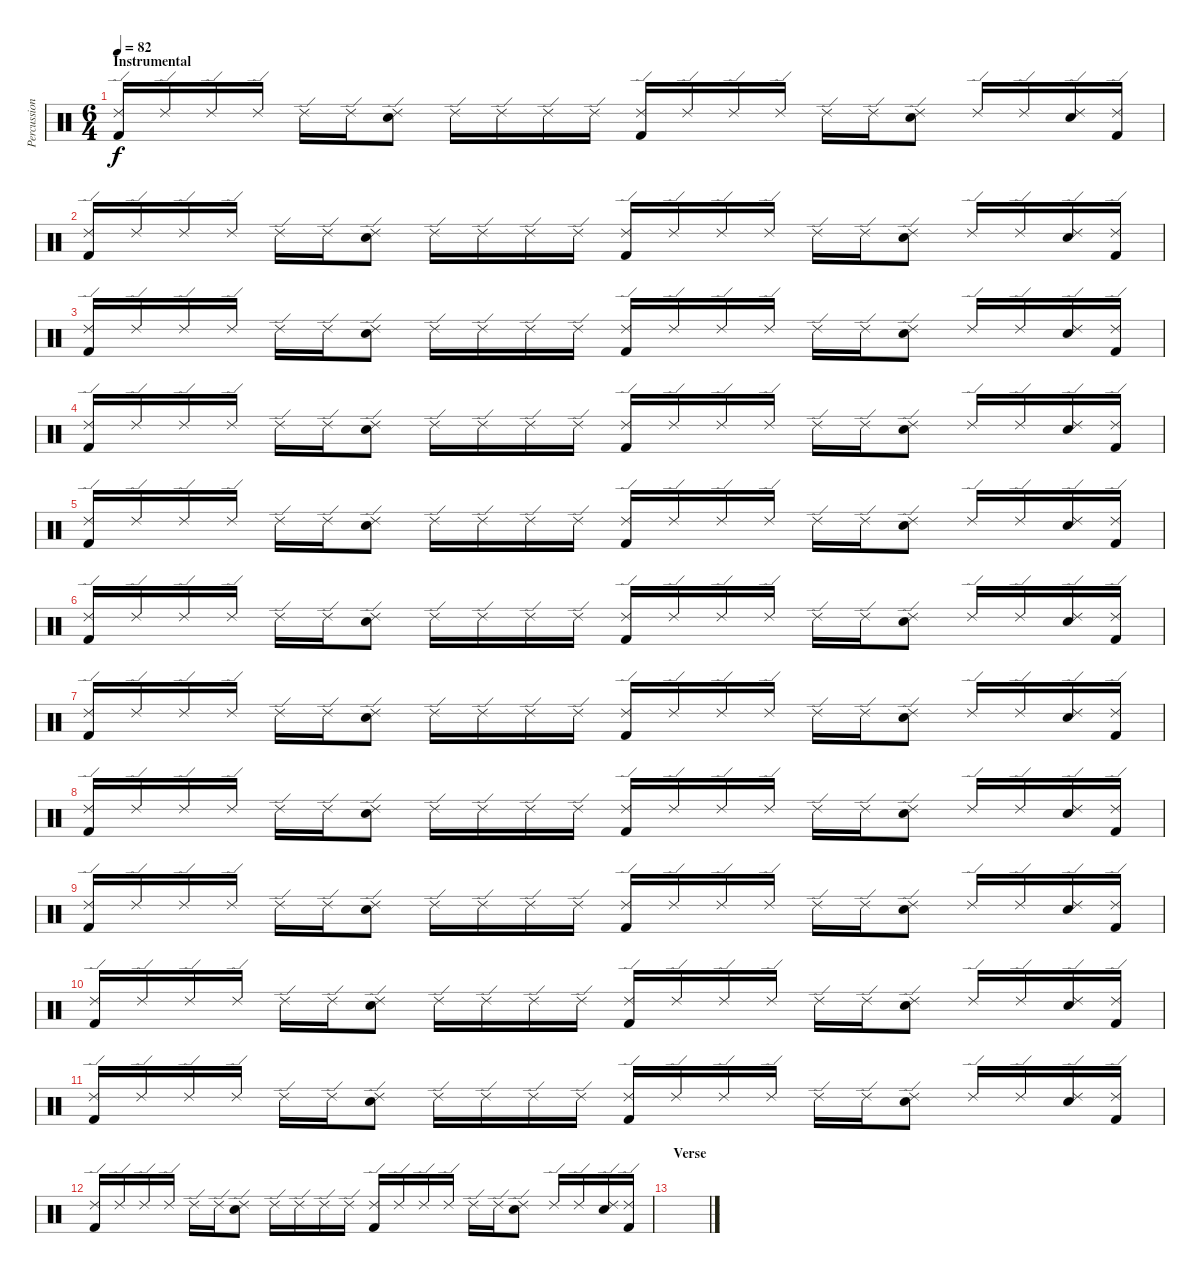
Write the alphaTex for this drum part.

\track ("Percussion" "Percussion") {instrument percussion}
\staff {score}
\articulation defaults
\ts (6 4)
\section ("" "Instrumental")
\tempo 82
\clef neutral
\ks c
("Ride (edge) 2" "Kick (hit) 2").16{dy f} "Ride (edge) 2".16 "Ride (edge) 2".16 "Ride (edge) 2".16 "Ride (edge) 2".16 "Ride (edge) 2".16 ("Ride (edge) 2" "Electric Snare (hit)").8 "Ride (edge) 2".16 "Ride (edge) 2".16 "Ride (edge) 2".16 "Ride (edge) 2".16 ("Ride (edge) 2" "Kick (hit) 2").16 "Ride (edge) 2".16 "Ride (edge) 2".16 "Ride (edge) 2".16 "Ride (edge) 2".16 "Ride (edge) 2".16 ("Ride (edge) 2" "Electric Snare (hit)").8 "Ride (edge) 2".16 "Ride (edge) 2".16 ("Ride (edge) 2" "Electric Snare (hit)").16 ("Ride (edge) 2" "Kick (hit) 2").16 |
("Ride (edge) 2" "Kick (hit) 2").16 "Ride (edge) 2".16 "Ride (edge) 2".16 "Ride (edge) 2".16 "Ride (edge) 2".16 "Ride (edge) 2".16 ("Ride (edge) 2" "Electric Snare (hit)").8 "Ride (edge) 2".16 "Ride (edge) 2".16 "Ride (edge) 2".16 "Ride (edge) 2".16 ("Ride (edge) 2" "Kick (hit) 2").16 "Ride (edge) 2".16 "Ride (edge) 2".16 "Ride (edge) 2".16 "Ride (edge) 2".16 "Ride (edge) 2".16 ("Ride (edge) 2" "Electric Snare (hit)").8 "Ride (edge) 2".16 "Ride (edge) 2".16 ("Ride (edge) 2" "Electric Snare (hit)").16 ("Ride (edge) 2" "Kick (hit) 2").16 |
("Ride (edge) 2" "Kick (hit) 2").16 "Ride (edge) 2".16 "Ride (edge) 2".16 "Ride (edge) 2".16 "Ride (edge) 2".16 "Ride (edge) 2".16 ("Ride (edge) 2" "Electric Snare (hit)").8 "Ride (edge) 2".16 "Ride (edge) 2".16 "Ride (edge) 2".16 "Ride (edge) 2".16 ("Ride (edge) 2" "Kick (hit) 2").16 "Ride (edge) 2".16 "Ride (edge) 2".16 "Ride (edge) 2".16 "Ride (edge) 2".16 "Ride (edge) 2".16 ("Ride (edge) 2" "Electric Snare (hit)").8 "Ride (edge) 2".16 "Ride (edge) 2".16 ("Ride (edge) 2" "Electric Snare (hit)").16 ("Ride (edge) 2" "Kick (hit) 2").16 |
("Ride (edge) 2" "Kick (hit) 2").16 "Ride (edge) 2".16 "Ride (edge) 2".16 "Ride (edge) 2".16 "Ride (edge) 2".16 "Ride (edge) 2".16 ("Ride (edge) 2" "Electric Snare (hit)").8 "Ride (edge) 2".16 "Ride (edge) 2".16 "Ride (edge) 2".16 "Ride (edge) 2".16 ("Ride (edge) 2" "Kick (hit) 2").16 "Ride (edge) 2".16 "Ride (edge) 2".16 "Ride (edge) 2".16 "Ride (edge) 2".16 "Ride (edge) 2".16 ("Ride (edge) 2" "Electric Snare (hit)").8 "Ride (edge) 2".16 "Ride (edge) 2".16 ("Ride (edge) 2" "Electric Snare (hit)").16 ("Ride (edge) 2" "Kick (hit) 2").16 |
("Ride (edge) 2" "Kick (hit) 2").16 "Ride (edge) 2".16 "Ride (edge) 2".16 "Ride (edge) 2".16 "Ride (edge) 2".16 "Ride (edge) 2".16 ("Ride (edge) 2" "Electric Snare (hit)").8 "Ride (edge) 2".16 "Ride (edge) 2".16 "Ride (edge) 2".16 "Ride (edge) 2".16 ("Ride (edge) 2" "Kick (hit) 2").16 "Ride (edge) 2".16 "Ride (edge) 2".16 "Ride (edge) 2".16 "Ride (edge) 2".16 "Ride (edge) 2".16 ("Ride (edge) 2" "Electric Snare (hit)").8 "Ride (edge) 2".16 "Ride (edge) 2".16 ("Ride (edge) 2" "Electric Snare (hit)").16 ("Ride (edge) 2" "Kick (hit) 2").16 |
("Ride (edge) 2" "Kick (hit) 2").16 "Ride (edge) 2".16 "Ride (edge) 2".16 "Ride (edge) 2".16 "Ride (edge) 2".16 "Ride (edge) 2".16 ("Ride (edge) 2" "Electric Snare (hit)").8 "Ride (edge) 2".16 "Ride (edge) 2".16 "Ride (edge) 2".16 "Ride (edge) 2".16 ("Ride (edge) 2" "Kick (hit) 2").16 "Ride (edge) 2".16 "Ride (edge) 2".16 "Ride (edge) 2".16 "Ride (edge) 2".16 "Ride (edge) 2".16 ("Ride (edge) 2" "Electric Snare (hit)").8 "Ride (edge) 2".16 "Ride (edge) 2".16 ("Ride (edge) 2" "Electric Snare (hit)").16 ("Ride (edge) 2" "Kick (hit) 2").16 |
("Ride (edge) 2" "Kick (hit) 2").16 "Ride (edge) 2".16 "Ride (edge) 2".16 "Ride (edge) 2".16 "Ride (edge) 2".16 "Ride (edge) 2".16 ("Ride (edge) 2" "Electric Snare (hit)").8 "Ride (edge) 2".16 "Ride (edge) 2".16 "Ride (edge) 2".16 "Ride (edge) 2".16 ("Ride (edge) 2" "Kick (hit) 2").16 "Ride (edge) 2".16 "Ride (edge) 2".16 "Ride (edge) 2".16 "Ride (edge) 2".16 "Ride (edge) 2".16 ("Ride (edge) 2" "Electric Snare (hit)").8 "Ride (edge) 2".16 "Ride (edge) 2".16 ("Ride (edge) 2" "Electric Snare (hit)").16 ("Ride (edge) 2" "Kick (hit) 2").16 |
("Ride (edge) 2" "Kick (hit) 2").16 "Ride (edge) 2".16 "Ride (edge) 2".16 "Ride (edge) 2".16 "Ride (edge) 2".16 "Ride (edge) 2".16 ("Ride (edge) 2" "Electric Snare (hit)").8 "Ride (edge) 2".16 "Ride (edge) 2".16 "Ride (edge) 2".16 "Ride (edge) 2".16 ("Ride (edge) 2" "Kick (hit) 2").16 "Ride (edge) 2".16 "Ride (edge) 2".16 "Ride (edge) 2".16 "Ride (edge) 2".16 "Ride (edge) 2".16 ("Ride (edge) 2" "Electric Snare (hit)").8 "Ride (edge) 2".16 "Ride (edge) 2".16 ("Ride (edge) 2" "Electric Snare (hit)").16 ("Ride (edge) 2" "Kick (hit) 2").16 |
("Ride (edge) 2" "Kick (hit) 2").16 "Ride (edge) 2".16 "Ride (edge) 2".16 "Ride (edge) 2".16 "Ride (edge) 2".16 "Ride (edge) 2".16 ("Ride (edge) 2" "Electric Snare (hit)").8 "Ride (edge) 2".16 "Ride (edge) 2".16 "Ride (edge) 2".16 "Ride (edge) 2".16 ("Ride (edge) 2" "Kick (hit) 2").16 "Ride (edge) 2".16 "Ride (edge) 2".16 "Ride (edge) 2".16 "Ride (edge) 2".16 "Ride (edge) 2".16 ("Ride (edge) 2" "Electric Snare (hit)").8 "Ride (edge) 2".16 "Ride (edge) 2".16 ("Ride (edge) 2" "Electric Snare (hit)").16 ("Ride (edge) 2" "Kick (hit) 2").16 |
("Ride (edge) 2" "Kick (hit) 2").16 "Ride (edge) 2".16 "Ride (edge) 2".16 "Ride (edge) 2".16 "Ride (edge) 2".16 "Ride (edge) 2".16 ("Ride (edge) 2" "Electric Snare (hit)").8 "Ride (edge) 2".16 "Ride (edge) 2".16 "Ride (edge) 2".16 "Ride (edge) 2".16 ("Ride (edge) 2" "Kick (hit) 2").16 "Ride (edge) 2".16 "Ride (edge) 2".16 "Ride (edge) 2".16 "Ride (edge) 2".16 "Ride (edge) 2".16 ("Ride (edge) 2" "Electric Snare (hit)").8 "Ride (edge) 2".16 "Ride (edge) 2".16 ("Ride (edge) 2" "Electric Snare (hit)").16 ("Ride (edge) 2" "Kick (hit) 2").16 |
("Ride (edge) 2" "Kick (hit) 2").16 "Ride (edge) 2".16 "Ride (edge) 2".16 "Ride (edge) 2".16 "Ride (edge) 2".16 "Ride (edge) 2".16 ("Ride (edge) 2" "Electric Snare (hit)").8 "Ride (edge) 2".16 "Ride (edge) 2".16 "Ride (edge) 2".16 "Ride (edge) 2".16 ("Ride (edge) 2" "Kick (hit) 2").16 "Ride (edge) 2".16 "Ride (edge) 2".16 "Ride (edge) 2".16 "Ride (edge) 2".16 "Ride (edge) 2".16 ("Ride (edge) 2" "Electric Snare (hit)").8 "Ride (edge) 2".16 "Ride (edge) 2".16 ("Ride (edge) 2" "Electric Snare (hit)").16 ("Ride (edge) 2" "Kick (hit) 2").16 |
("Ride (edge) 2" "Kick (hit) 2").16 "Ride (edge) 2".16 "Ride (edge) 2".16 "Ride (edge) 2".16 "Ride (edge) 2".16 "Ride (edge) 2".16 ("Ride (edge) 2" "Electric Snare (hit)").8 "Ride (edge) 2".16 "Ride (edge) 2".16 "Ride (edge) 2".16 "Ride (edge) 2".16 ("Ride (edge) 2" "Kick (hit) 2").16 "Ride (edge) 2".16 "Ride (edge) 2".16 "Ride (edge) 2".16 "Ride (edge) 2".16 "Ride (edge) 2".16 ("Ride (edge) 2" "Electric Snare (hit)").8 "Ride (edge) 2".16 "Ride (edge) 2".16 ("Ride (edge) 2" "Electric Snare (hit)").16 ("Ride (edge) 2" "Kick (hit) 2").16 |
\section ("" "Verse")
